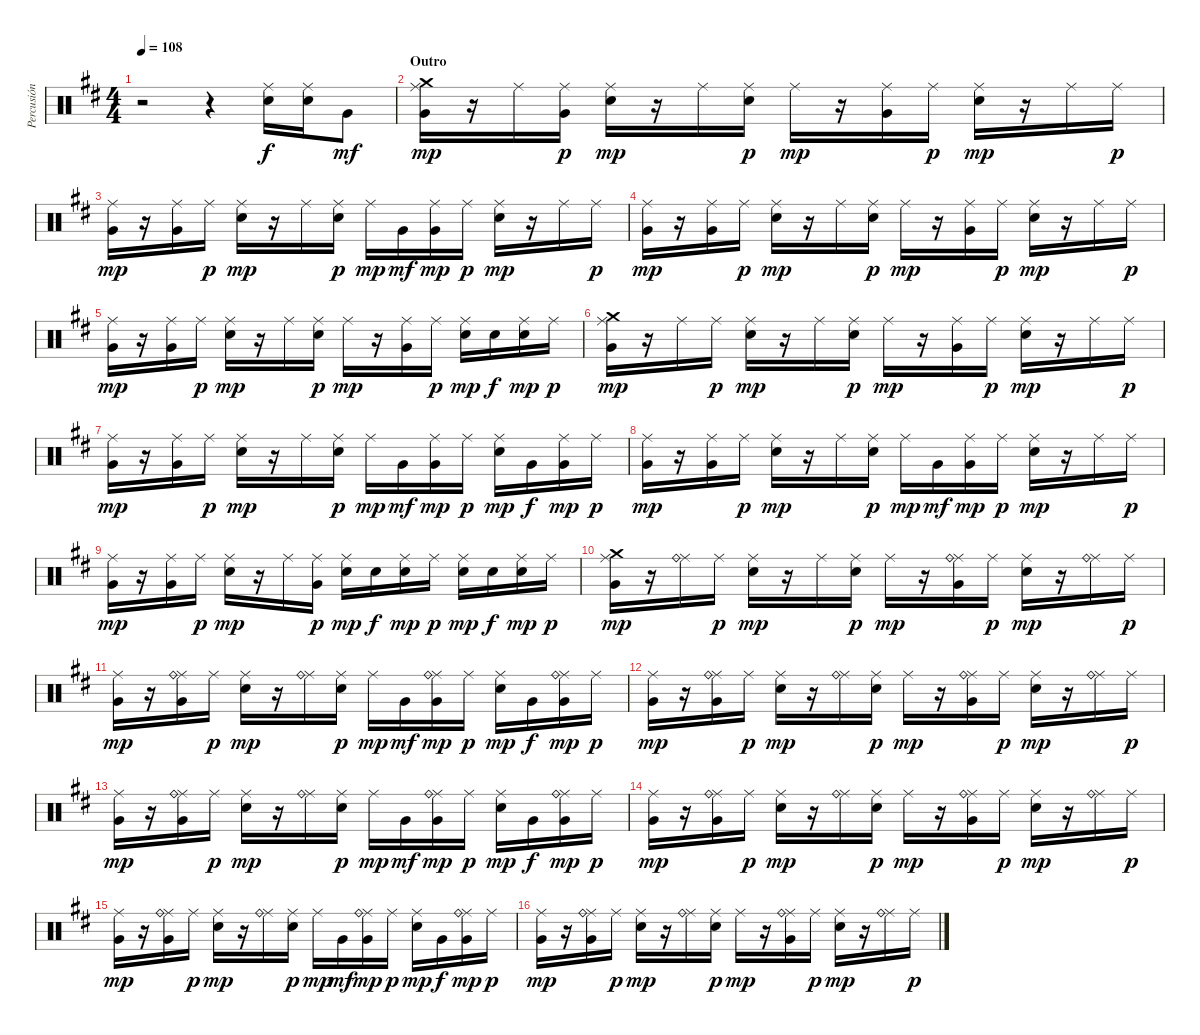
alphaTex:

\track ("Percusión" "Percusión") {instrument percussion}
\staff {score}
\articulation defaults
\ts (4 4)
\tempo 108
\clef neutral
\ks bminor
r.2{dy mp} r.4 ("Electric Snare (hit)" "Ride (middle)").16{dy f} ("Electric Snare (hit)" "Ride (middle)").16 "Very Low Tom (hit)".8{dy mf} |
\section ("" "Outro")
("Crash medium (hit)" "Very Low Tom (hit)" "Ride (middle)").16{dy mp} r.16 "Ride (middle)".16 ("Very Low Tom (hit)" "Ride (middle)").16{dy p} ("Electric Snare (hit)" "Ride (middle)").16{dy mp} r.16 "Ride (middle)".16 ("Electric Snare (hit)" "Ride (middle)").16{dy p} "Ride (middle)".16{dy mp} r.16 ("Very Low Tom (hit)" "Ride (middle)").16 "Ride (middle)".16{dy p} ("Electric Snare (hit)" "Ride (middle)").16{dy mp} r.16 "Ride (middle)".16 "Ride (middle)".16{dy p} |
("Very Low Tom (hit)" "Ride (middle)").16{dy mp} r.16 ("Very Low Tom (hit)" "Ride (middle)").16 "Ride (middle)".16{dy p} ("Electric Snare (hit)" "Ride (middle)").16{dy mp} r.16 "Ride (middle)".16 ("Electric Snare (hit)" "Ride (middle)").16{dy p} "Ride (middle)".16{dy mp} "Very Low Tom (hit)".16{dy mf} ("Very Low Tom (hit)" "Ride (middle)").16{dy mp} "Ride (middle)".16{dy p} ("Electric Snare (hit)" "Ride (middle)").16{dy mp} r.16 "Ride (middle)".16 "Ride (middle)".16{dy p} |
("Very Low Tom (hit)" "Ride (middle)").16{dy mp} r.16 ("Very Low Tom (hit)" "Ride (middle)").16 "Ride (middle)".16{dy p} ("Electric Snare (hit)" "Ride (middle)").16{dy mp} r.16 "Ride (middle)".16 ("Electric Snare (hit)" "Ride (middle)").16{dy p} "Ride (middle)".16{dy mp} r.16 ("Very Low Tom (hit)" "Ride (middle)").16 "Ride (middle)".16{dy p} ("Electric Snare (hit)" "Ride (middle)").16{dy mp} r.16 "Ride (middle)".16 "Ride (middle)".16{dy p} |
("Very Low Tom (hit)" "Ride (middle)").16{dy mp} r.16 ("Very Low Tom (hit)" "Ride (middle)").16 "Ride (middle)".16{dy p} ("Electric Snare (hit)" "Ride (middle)").16{dy mp} r.16 "Ride (middle)".16 ("Electric Snare (hit)" "Ride (middle)").16{dy p} "Ride (middle)".16{dy mp} r.16 ("Very Low Tom (hit)" "Ride (middle)").16 "Ride (middle)".16{dy p} ("Electric Snare (hit)" "Ride (middle)").16{dy mp} "Electric Snare (hit)".16{dy f} ("Electric Snare (hit)" "Ride (middle)").16{dy mp} "Ride (middle)".16{dy p} |
("Crash medium (hit)" "Very Low Tom (hit)" "Ride (middle)").16{dy mp} r.16 "Ride (middle)".16 "Ride (middle)".16{dy p} ("Electric Snare (hit)" "Ride (middle)").16{dy mp} r.16 "Ride (middle)".16 ("Electric Snare (hit)" "Ride (middle)").16{dy p} "Ride (middle)".16{dy mp} r.16 ("Very Low Tom (hit)" "Ride (middle)").16 "Ride (middle)".16{dy p} ("Electric Snare (hit)" "Ride (middle)").16{dy mp} r.16 "Ride (middle)".16 "Ride (middle)".16{dy p} |
("Very Low Tom (hit)" "Ride (middle)").16{dy mp} r.16 ("Very Low Tom (hit)" "Ride (middle)").16 "Ride (middle)".16{dy p} ("Electric Snare (hit)" "Ride (middle)").16{dy mp} r.16 "Ride (middle)".16 ("Electric Snare (hit)" "Ride (middle)").16{dy p} "Ride (middle)".16{dy mp} "Very Low Tom (hit)".16{dy mf} ("Very Low Tom (hit)" "Ride (middle)").16{dy mp} "Ride (middle)".16{dy p} ("Electric Snare (hit)" "Ride (middle)").16{dy mp} "Very Low Tom (hit)".16{dy f} ("Very Low Tom (hit)" "Ride (middle)").16{dy mp} "Ride (middle)".16{dy p} |
("Very Low Tom (hit)" "Ride (middle)").16{dy mp} r.16 ("Very Low Tom (hit)" "Ride (middle)").16 "Ride (middle)".16{dy p} ("Electric Snare (hit)" "Ride (middle)").16{dy mp} r.16 "Ride (middle)".16 ("Electric Snare (hit)" "Ride (middle)").16{dy p} "Ride (middle)".16{dy mp} "Very Low Tom (hit)".16{dy mf} ("Very Low Tom (hit)" "Ride (middle)").16{dy mp} "Ride (middle)".16{dy p} ("Electric Snare (hit)" "Ride (middle)").16{dy mp} r.16 "Ride (middle)".16 "Ride (middle)".16{dy p} |
("Very Low Tom (hit)" "Ride (middle)").16{dy mp} r.16 ("Very Low Tom (hit)" "Ride (middle)").16 "Ride (middle)".16{dy p} ("Electric Snare (hit)" "Ride (middle)").16{dy mp} r.16 "Ride (middle)".16 ("Very Low Tom (hit)" "Ride (middle)").16{dy p} ("Electric Snare (hit)" "Ride (middle)").16{dy mp} "Electric Snare (hit)".16{dy f} ("Electric Snare (hit)" "Ride (middle)").16{dy mp} "Ride (middle)".16{dy p} ("Electric Snare (hit)" "Ride (middle)").16{dy mp} "Electric Snare (hit)".16{dy f} ("Electric Snare (hit)" "Ride (middle)").16{dy mp} "Ride (middle)".16{dy p} |
("Crash medium (hit)" "Very Low Tom (hit)" "Ride (middle)").16{dy mp} r.16 ("Ride (middle)" "Ride (bell)").16 "Ride (middle)".16{dy p} ("Electric Snare (hit)" "Ride (middle)").16{dy mp} r.16 "Ride (middle)".16 ("Electric Snare (hit)" "Ride (middle)").16{dy p} "Ride (middle)".16{dy mp} r.16 ("Very Low Tom (hit)" "Ride (middle)" "Ride (bell)").16 "Ride (middle)".16{dy p} ("Electric Snare (hit)" "Ride (middle)").16{dy mp} r.16 ("Ride (middle)" "Ride (bell)").16 "Ride (middle)".16{dy p} |
("Very Low Tom (hit)" "Ride (middle)").16{dy mp} r.16 ("Very Low Tom (hit)" "Ride (middle)" "Ride (bell)").16 "Ride (middle)".16{dy p} ("Electric Snare (hit)" "Ride (middle)").16{dy mp} r.16 ("Ride (middle)" "Ride (bell)").16 ("Electric Snare (hit)" "Ride (middle)").16{dy p} "Ride (middle)".16{dy mp} "Very Low Tom (hit)".16{dy mf} ("Very Low Tom (hit)" "Ride (middle)" "Ride (bell)").16{dy mp} "Ride (middle)".16{dy p} ("Electric Snare (hit)" "Ride (middle)").16{dy mp} "Very Low Tom (hit)".16{dy f} ("Very Low Tom (hit)" "Ride (middle)" "Ride (bell)").16{dy mp} "Ride (middle)".16{dy p} |
("Very Low Tom (hit)" "Ride (middle)").16{dy mp} r.16 ("Very Low Tom (hit)" "Ride (middle)" "Ride (bell)").16 "Ride (middle)".16{dy p} ("Electric Snare (hit)" "Ride (middle)").16{dy mp} r.16 ("Ride (middle)" "Ride (bell)").16 ("Electric Snare (hit)" "Ride (middle)").16{dy p} "Ride (middle)".16{dy mp} r.16 ("Very Low Tom (hit)" "Ride (middle)" "Ride (bell)").16 "Ride (middle)".16{dy p} ("Electric Snare (hit)" "Ride (middle)").16{dy mp} r.16 ("Ride (middle)" "Ride (bell)").16 "Ride (middle)".16{dy p} |
("Very Low Tom (hit)" "Ride (middle)").16{dy mp} r.16 ("Very Low Tom (hit)" "Ride (middle)" "Ride (bell)").16 "Ride (middle)".16{dy p} ("Electric Snare (hit)" "Ride (middle)").16{dy mp} r.16 ("Ride (middle)" "Ride (bell)").16 ("Electric Snare (hit)" "Ride (middle)").16{dy p} "Ride (middle)".16{dy mp} "Very Low Tom (hit)".16{dy mf} ("Very Low Tom (hit)" "Ride (middle)" "Ride (bell)").16{dy mp} "Ride (middle)".16{dy p} ("Electric Snare (hit)" "Ride (middle)").16{dy mp} "Very Low Tom (hit)".16{dy f} ("Very Low Tom (hit)" "Ride (middle)" "Ride (bell)").16{dy mp} "Ride (middle)".16{dy p} |
("Very Low Tom (hit)" "Ride (middle)").16{dy mp} r.16 ("Very Low Tom (hit)" "Ride (middle)" "Ride (bell)").16 "Ride (middle)".16{dy p} ("Electric Snare (hit)" "Ride (middle)").16{dy mp} r.16 ("Ride (middle)" "Ride (bell)").16 ("Electric Snare (hit)" "Ride (middle)").16{dy p} "Ride (middle)".16{dy mp} r.16 ("Very Low Tom (hit)" "Ride (middle)" "Ride (bell)").16 "Ride (middle)".16{dy p} ("Electric Snare (hit)" "Ride (middle)").16{dy mp} r.16 ("Ride (middle)" "Ride (bell)").16 "Ride (middle)".16{dy p} |
("Very Low Tom (hit)" "Ride (middle)").16{dy mp} r.16 ("Very Low Tom (hit)" "Ride (middle)" "Ride (bell)").16 "Ride (middle)".16{dy p} ("Electric Snare (hit)" "Ride (middle)").16{dy mp} r.16 ("Ride (middle)" "Ride (bell)").16 ("Electric Snare (hit)" "Ride (middle)").16{dy p} "Ride (middle)".16{dy mp} "Very Low Tom (hit)".16{dy mf} ("Very Low Tom (hit)" "Ride (middle)" "Ride (bell)").16{dy mp} "Ride (middle)".16{dy p} ("Electric Snare (hit)" "Ride (middle)").16{dy mp} "Very Low Tom (hit)".16{dy f} ("Very Low Tom (hit)" "Ride (middle)" "Ride (bell)").16{dy mp} "Ride (middle)".16{dy p} |
("Very Low Tom (hit)" "Ride (middle)").16{dy mp} r.16 ("Very Low Tom (hit)" "Ride (middle)" "Ride (bell)").16 "Ride (middle)".16{dy p} ("Electric Snare (hit)" "Ride (middle)").16{dy mp} r.16 ("Ride (middle)" "Ride (bell)").16 ("Electric Snare (hit)" "Ride (middle)").16{dy p} "Ride (middle)".16{dy mp} r.16 ("Very Low Tom (hit)" "Ride (middle)" "Ride (bell)").16 "Ride (middle)".16{dy p} ("Electric Snare (hit)" "Ride (middle)").16{dy mp} r.16 ("Ride (middle)" "Ride (bell)").16 "Ride (middle)".16{dy p}
